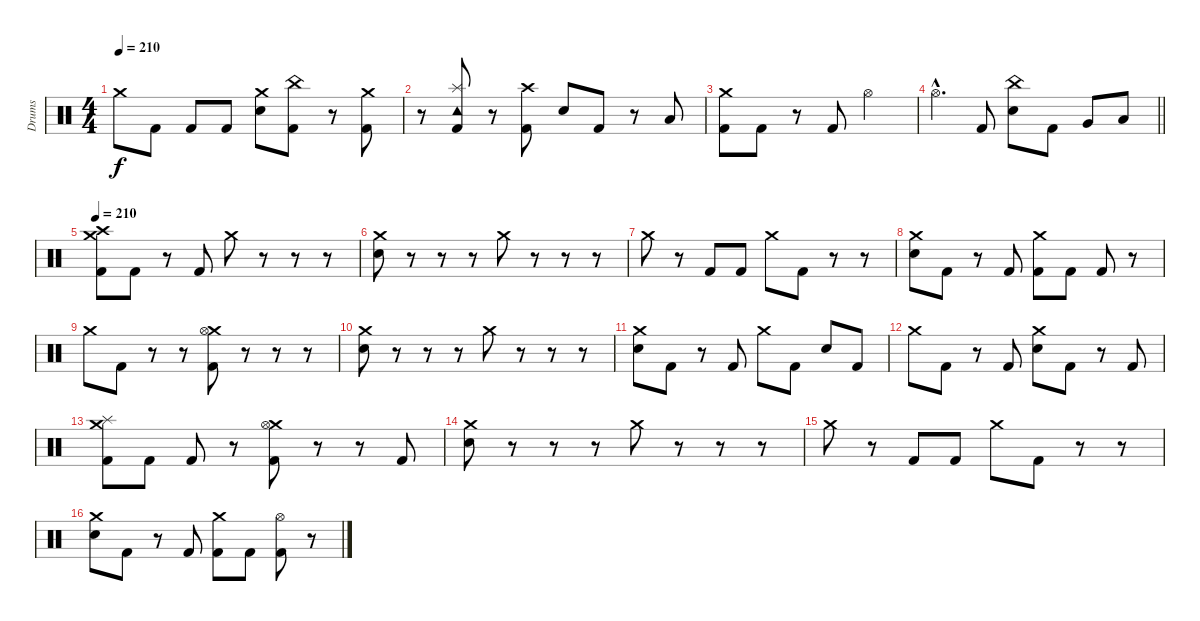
\track ("Drums" "Drums") {instrument percussion}
\staff {score}
\articulation defaults
\ts (4 4)
\tempo 210
\clef neutral
\ks c "Crash medium (hit)".8{dy f} "Kick (hit) 2".8 "Kick (hit) 2".8 "Kick (hit) 2".8
("Crash medium (hit)" "Electric Snare (hit)").8 ("China (hit)" "Kick (hit) 2").8 r.8 ("Crash medium (hit)" "Kick (hit) 2").8 |
r.8 ("Splash (hit)" "Tambourine (hit)" "Kick (hit) 2").8 r.8 ("Crash high (hit)" "Kick (hit) 2").8 "Electric Snare (hit)".8 "Kick (hit) 2".8 r.8 "Low Tom (hit)".8 |
("Crash medium (hit)" "Kick (hit) 2").8 "Kick (hit) 2".8 r.8 "Kick (hit) 2".8 "Hi-Hat (open)".2 |
\barLineRight lightlight "Hi-Hat (open)"{hac}.4{d} "Kick (hit) 2".8
("China (hit)" "Electric Snare (hit)").8 "Kick (hit) 2".8 "Very Low Tom (hit)".8 "Low Tom (hit)".8 |
\section ("" "")
\tempo 210
("Crash high (hit)" "Crash medium (hit)" "Kick (hit) 2").8 "Kick (hit) 2".8 r.8 "Kick (hit) 2".8 "Crash medium (hit)".8 r.8 r.8 r.8 |
("Crash medium (hit)" "Electric Snare (hit)").8 r.8 r.8 r.8 "Crash medium (hit)".8 r.8 r.8 r.8 |
"Crash medium (hit)".8 r.8 "Kick (hit) 2".8 "Kick (hit) 2".8 "Crash medium (hit)".8 "Kick (hit) 2".8 r.8 r.8 |
("Crash medium (hit)" "Electric Snare (hit)").8 "Kick (hit) 2".8 r.8 "Kick (hit) 2".8 ("Crash medium (hit)" "Kick (hit) 2").8 "Kick (hit) 2".8 "Kick (hit) 2".8 r.8 |
"Crash medium (hit)".8 "Kick (hit) 2".8 r.8 r.8 ("Crash medium (hit)" "Hi-Hat (open)" "Kick (hit) 2").8 r.8 r.8 r.8 |
("Crash medium (hit)" "Electric Snare (hit)").8 r.8 r.8 r.8 "Crash medium (hit)".8 r.8 r.8 r.8 |
("Crash medium (hit)" "Electric Snare (hit)").8 "Kick (hit) 2".8 r.8 "Kick (hit) 2".8 "Crash medium (hit)".8 "Kick (hit) 2".8 "Electric Snare (hit)".8 "Kick (hit) 2".8 |
"Crash medium (hit)".8 "Kick (hit) 2".8 r.8 "Kick (hit) 2".8 ("Crash medium (hit)" "Electric Snare (hit)").8 "Kick (hit) 2".8 r.8 "Kick (hit) 2".8 |
("Crash medium (hit)" "Splash (hit)" "Kick (hit) 2").8 "Kick (hit) 2".8 "Kick (hit) 2".8 r.8 ("Crash medium (hit)" "Hi-Hat (open)" "Kick (hit) 2").8 r.8 r.8 "Kick (hit) 2".8 |
("Crash medium (hit)" "Electric Snare (hit)").8 r.8 r.8 r.8 "Crash medium (hit)".8 r.8 r.8 r.8 |
"Crash medium (hit)".8 r.8 "Kick (hit) 2".8 "Kick (hit) 2".8 "Crash medium (hit)".8 "Kick (hit) 2".8 r.8 r.8 |
("Crash medium (hit)" "Electric Snare (hit)").8 "Kick (hit) 2".8 r.8 "Kick (hit) 2".8 ("Crash medium (hit)" "Kick (hit) 2").8 "Kick (hit) 2".8 ("Hi-Hat (open)" "Kick (hit) 2").8 r.8
